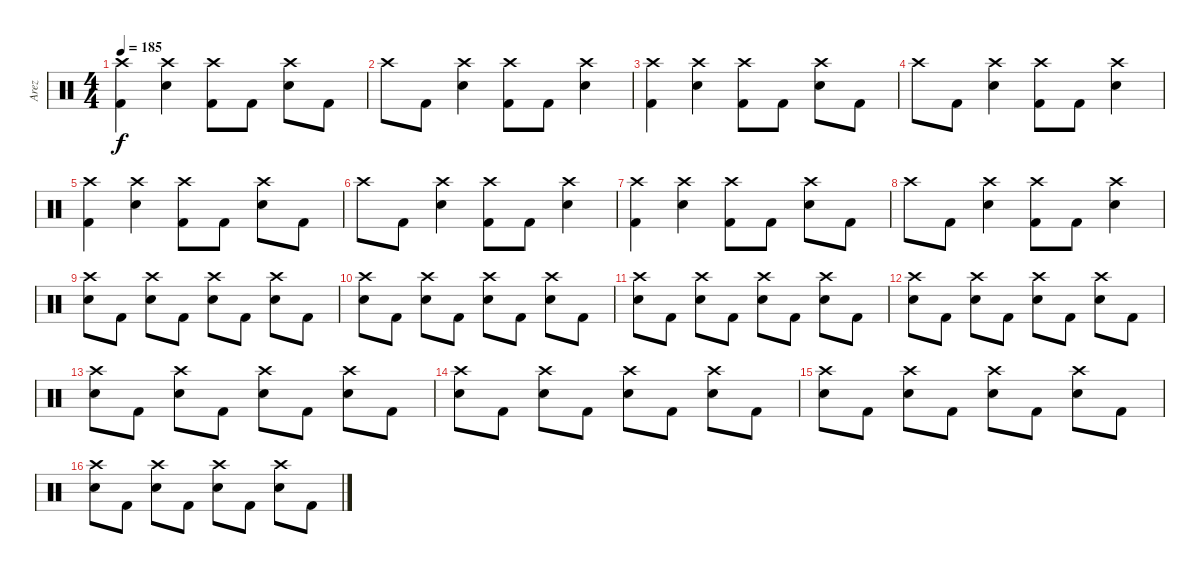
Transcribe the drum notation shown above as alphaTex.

\track ("Arez" "Arez") {instrument percussion}
\staff {score}
\articulation defaults
\ts (4 4)
\tempo 185
\clef neutral
\ks c
("Crash high (hit)" "Kick (hit) 2").4{dy f} ("Crash high (hit)" "Electric Snare (hit)").4 ("Crash high (hit)" "Kick (hit) 2").8 "Kick (hit) 2".8 ("Crash high (hit)" "Electric Snare (hit)").8 "Kick (hit) 2".8 |
"Crash high (hit)".8 "Kick (hit) 2".8 ("Electric Snare (hit)" "Crash high (hit)").4 ("Kick (hit) 2" "Crash high (hit)").8 "Kick (hit) 2".8 ("Electric Snare (hit)" "Crash high (hit)").4 |
("Crash high (hit)" "Kick (hit) 2").4 ("Crash high (hit)" "Electric Snare (hit)").4 ("Crash high (hit)" "Kick (hit) 2").8 "Kick (hit) 2".8 ("Crash high (hit)" "Electric Snare (hit)").8 "Kick (hit) 2".8 |
"Crash high (hit)".8 "Kick (hit) 2".8 ("Electric Snare (hit)" "Crash high (hit)").4 ("Kick (hit) 2" "Crash high (hit)").8 "Kick (hit) 2".8 ("Electric Snare (hit)" "Crash high (hit)").4 |
("Crash high (hit)" "Kick (hit) 2").4 ("Crash high (hit)" "Electric Snare (hit)").4 ("Crash high (hit)" "Kick (hit) 2").8 "Kick (hit) 2".8 ("Crash high (hit)" "Electric Snare (hit)").8 "Kick (hit) 2".8 |
"Crash high (hit)".8 "Kick (hit) 2".8 ("Electric Snare (hit)" "Crash high (hit)").4 ("Kick (hit) 2" "Crash high (hit)").8 "Kick (hit) 2".8 ("Electric Snare (hit)" "Crash high (hit)").4 |
("Crash high (hit)" "Kick (hit) 2").4 ("Crash high (hit)" "Electric Snare (hit)").4 ("Crash high (hit)" "Kick (hit) 2").8 "Kick (hit) 2".8 ("Crash high (hit)" "Electric Snare (hit)").8 "Kick (hit) 2".8 |
"Crash high (hit)".8 "Kick (hit) 2".8 ("Electric Snare (hit)" "Crash high (hit)").4 ("Kick (hit) 2" "Crash high (hit)").8 "Kick (hit) 2".8 ("Electric Snare (hit)" "Crash high (hit)").4 |
("Crash high (hit)" "Electric Snare (hit)").8 "Kick (hit) 2".8 ("Crash high (hit)" "Electric Snare (hit)").8 "Kick (hit) 2".8 ("Crash high (hit)" "Electric Snare (hit)").8 "Kick (hit) 2".8 ("Crash high (hit)" "Electric Snare (hit)").8 "Kick (hit) 2".8 |
("Crash high (hit)" "Electric Snare (hit)").8 "Kick (hit) 2".8 ("Crash high (hit)" "Electric Snare (hit)").8 "Kick (hit) 2".8 ("Crash high (hit)" "Electric Snare (hit)").8 "Kick (hit) 2".8 ("Crash high (hit)" "Electric Snare (hit)").8 "Kick (hit) 2".8 |
("Crash high (hit)" "Electric Snare (hit)").8 "Kick (hit) 2".8 ("Crash high (hit)" "Electric Snare (hit)").8 "Kick (hit) 2".8 ("Crash high (hit)" "Electric Snare (hit)").8 "Kick (hit) 2".8 ("Crash high (hit)" "Electric Snare (hit)").8 "Kick (hit) 2".8 |
("Crash high (hit)" "Electric Snare (hit)").8 "Kick (hit) 2".8 ("Crash high (hit)" "Electric Snare (hit)").8 "Kick (hit) 2".8 ("Crash high (hit)" "Electric Snare (hit)").8 "Kick (hit) 2".8 ("Crash high (hit)" "Electric Snare (hit)").8 "Kick (hit) 2".8 |
("Crash high (hit)" "Electric Snare (hit)").8 "Kick (hit) 2".8 ("Crash high (hit)" "Electric Snare (hit)").8 "Kick (hit) 2".8 ("Crash high (hit)" "Electric Snare (hit)").8 "Kick (hit) 2".8 ("Crash high (hit)" "Electric Snare (hit)").8 "Kick (hit) 2".8 |
("Crash high (hit)" "Electric Snare (hit)").8 "Kick (hit) 2".8 ("Crash high (hit)" "Electric Snare (hit)").8 "Kick (hit) 2".8 ("Crash high (hit)" "Electric Snare (hit)").8 "Kick (hit) 2".8 ("Crash high (hit)" "Electric Snare (hit)").8 "Kick (hit) 2".8 |
("Crash high (hit)" "Electric Snare (hit)").8 "Kick (hit) 2".8 ("Crash high (hit)" "Electric Snare (hit)").8 "Kick (hit) 2".8 ("Crash high (hit)" "Electric Snare (hit)").8 "Kick (hit) 2".8 ("Crash high (hit)" "Electric Snare (hit)").8 "Kick (hit) 2".8 |
("Crash high (hit)" "Electric Snare (hit)").8 "Kick (hit) 2".8 ("Crash high (hit)" "Electric Snare (hit)").8 "Kick (hit) 2".8 ("Crash high (hit)" "Electric Snare (hit)").8 "Kick (hit) 2".8 ("Crash high (hit)" "Electric Snare (hit)").8 "Kick (hit) 2".8
